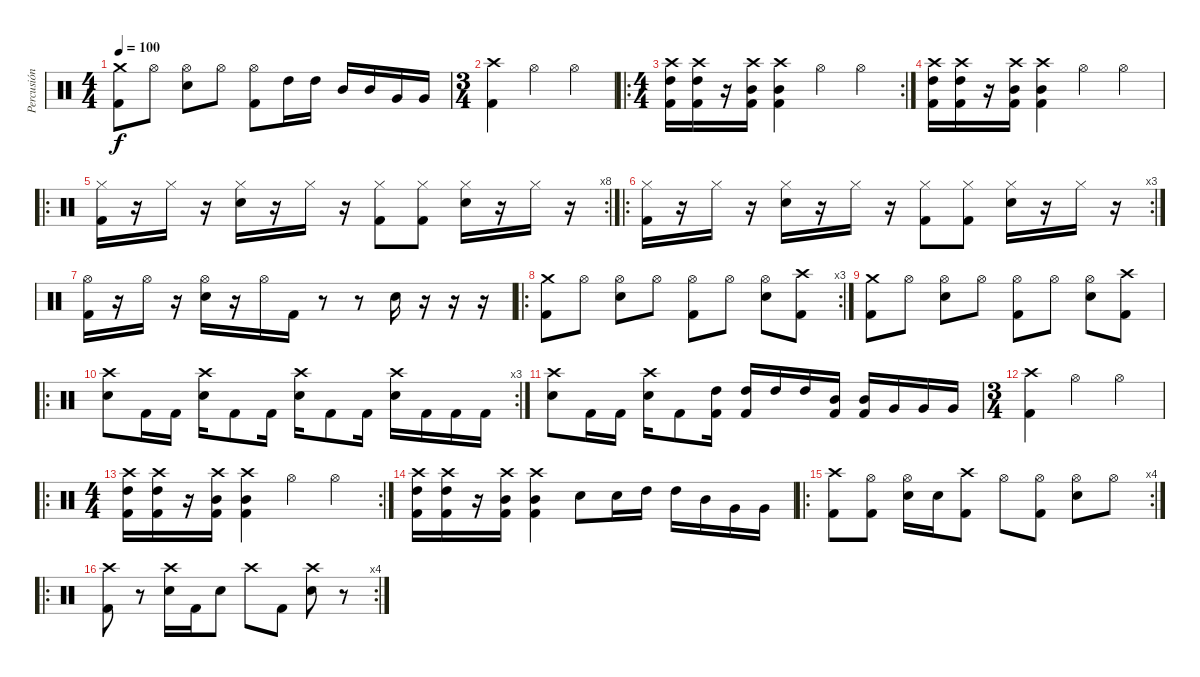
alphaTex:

\track ("Percusión" "Percusión") {instrument percussion}
\staff {score}
\articulation defaults
\ts (4 4)
\tempo 100
\clef neutral
\ks c
("Crash medium (hit)" "Kick (hit) 2").8{dy f} "Hi-Hat (open)".8 ("Hi-Hat (open)" "Electric Snare (hit)").8 "Hi-Hat (open)".8 ("Hi-Hat (open)" "Kick (hit) 2").8 "High Tom (hit)".16 "High Tom (hit)".16 "Mid Tom (hit)".16 "Mid Tom (hit)".16 "Very Low Tom (hit)".16 "Very Low Tom (hit)".16 |
\ts (3 4)
("Crash high (hit)" "Kick (hit) 2").4 "Hi-Hat (open)".4 "Hi-Hat (open)".4 |
\ro
\rc 2
\ts (4 4)
("High Tom (hit)" "Crash high (hit)" "Kick (hit) 2").16 ("High Tom (hit)" "Crash high (hit)" "Kick (hit) 2").16 r.16 ("Mid Tom (hit)" "Crash high (hit)" "Kick (hit) 2").16 ("Mid Tom (hit)" "Crash high (hit)" "Kick (hit) 2").4 "Hi-Hat (open)".4 "Hi-Hat (open)".4 |
("High Tom (hit)" "Crash high (hit)" "Kick (hit) 2").16 ("High Tom (hit)" "Crash high (hit)" "Kick (hit) 2").16 r.16 ("Mid Tom (hit)" "Crash high (hit)" "Kick (hit) 2").16 ("Mid Tom (hit)" "Crash high (hit)" "Kick (hit) 2").4 "Hi-Hat (open)".4 "Hi-Hat (open)".4 |
\ro
\rc 8
("Hi-Hat (closed)" "Kick (hit) 2").16 r.16 "Hi-Hat (closed)".16 r.16 ("Hi-Hat (closed)" "Electric Snare (hit)").16 r.16 "Hi-Hat (closed)".16 r.16 ("Hi-Hat (closed)" "Kick (hit) 2").8 ("Hi-Hat (closed)" "Kick (hit) 2").8 ("Hi-Hat (closed)" "Electric Snare (hit)").16 r.16 "Hi-Hat (closed)".16 r.16 |
\ro
\rc 3
("Hi-Hat (closed)" "Kick (hit) 2").16 r.16 "Hi-Hat (closed)".16 r.16 ("Hi-Hat (closed)" "Electric Snare (hit)").16 r.16 "Hi-Hat (closed)".16 r.16 ("Hi-Hat (closed)" "Kick (hit) 2").8 ("Hi-Hat (closed)" "Kick (hit) 2").8 ("Hi-Hat (closed)" "Electric Snare (hit)").16 r.16 "Hi-Hat (closed)".16 r.16 |
("Hi-Hat (open)" "Kick (hit) 2").16 r.16 "Hi-Hat (open)".16 r.16 ("Hi-Hat (open)" "Electric Snare (hit)").16 r.16 "Hi-Hat (open)".16 "Kick (hit) 2".16 r.8 r.8 "Electric Snare (hit)".16 r.16 r.16 r.16 |
\ro
\rc 3
("Crash medium (hit)" "Kick (hit) 2").8 "Hi-Hat (open)".8 ("Hi-Hat (open)" "Electric Snare (hit)").8 "Hi-Hat (open)".8 ("Hi-Hat (open)" "Kick (hit) 2").8 "Hi-Hat (open)".8 ("Hi-Hat (open)" "Electric Snare (hit)").8 ("Crash high (hit)" "Kick (hit) 2").8 |
("Crash medium (hit)" "Kick (hit) 2").8 "Hi-Hat (open)".8 ("Hi-Hat (open)" "Electric Snare (hit)").8 "Hi-Hat (open)".8 ("Hi-Hat (open)" "Kick (hit) 2").8 "Hi-Hat (open)".8 ("Hi-Hat (open)" "Electric Snare (hit)").8 ("Crash high (hit)" "Kick (hit) 2").8 |
\ro
\rc 3
("Crash high (hit)" "Electric Snare (hit)").8 "Kick (hit) 2".16 "Kick (hit) 2".16 ("Crash high (hit)" "Electric Snare (hit)").16 "Kick (hit) 2".8 "Kick (hit) 2".16 ("Crash high (hit)" "Electric Snare (hit)").16 "Kick (hit) 2".8 "Kick (hit) 2".16 ("Crash high (hit)" "Electric Snare (hit)").16 "Kick (hit) 2".16 "Kick (hit) 2".16 "Kick (hit) 2".16 |
("Crash high (hit)" "Electric Snare (hit)").8 "Kick (hit) 2".16 "Kick (hit) 2".16 ("Crash high (hit)" "Electric Snare (hit)").16 "Kick (hit) 2".8 ("Kick (hit) 2" "High Tom (hit)").16 ("Kick (hit) 2" "High Tom (hit)").16 "High Tom (hit)".16 "High Tom (hit)".16 ("Kick (hit) 2" "Mid Tom (hit)").16 ("Kick (hit) 2" "Mid Tom (hit)").16 "Very Low Tom (hit)".16 "Very Low Tom (hit)".16 "Very Low Tom (hit)".16 |
\ts (3 4)
("Crash high (hit)" "Kick (hit) 2").4 "Hi-Hat (open)".4 "Hi-Hat (open)".4 |
\ro
\rc 2
\ts (4 4)
("High Tom (hit)" "Crash high (hit)" "Kick (hit) 2").16 ("High Tom (hit)" "Crash high (hit)" "Kick (hit) 2").16 r.16 ("Mid Tom (hit)" "Crash high (hit)" "Kick (hit) 2").16 ("Mid Tom (hit)" "Crash high (hit)" "Kick (hit) 2").4 "Hi-Hat (open)".4 "Hi-Hat (open)".4 |
("High Tom (hit)" "Crash high (hit)" "Kick (hit) 2").16 ("High Tom (hit)" "Crash high (hit)" "Kick (hit) 2").16 r.16 ("Mid Tom (hit)" "Crash high (hit)" "Kick (hit) 2").16 ("Mid Tom (hit)" "Crash high (hit)" "Kick (hit) 2").4 "Electric Snare (hit)".8 "Electric Snare (hit)".16 "High Tom (hit)".16 "High Tom (hit)".16 "Mid Tom (hit)".16 "Very Low Tom (hit)".16 "Very Low Tom (hit)".16 |
\ro
\rc 4
("Crash high (hit)" "Kick (hit) 2").8 ("Hi-Hat (open)" "Kick (hit) 2").8 ("Hi-Hat (open)" "Electric Snare (hit)").16 "Electric Snare (hit)".16 ("Crash high (hit)" "Kick (hit) 2").8 "Hi-Hat (open)".8 ("Hi-Hat (open)" "Kick (hit) 2").8 ("Hi-Hat (open)" "Electric Snare (hit)").8 "Hi-Hat (open)".8 |
\ro
\rc 4
("Crash high (hit)" "Kick (hit) 2").8 r.8 ("Crash high (hit)" "Electric Snare (hit)").16 "Kick (hit) 2".16 "Electric Snare (hit)".8 "Crash high (hit)".8 "Kick (hit) 2".8 ("Crash high (hit)" "Electric Snare (hit)").8 r.8
